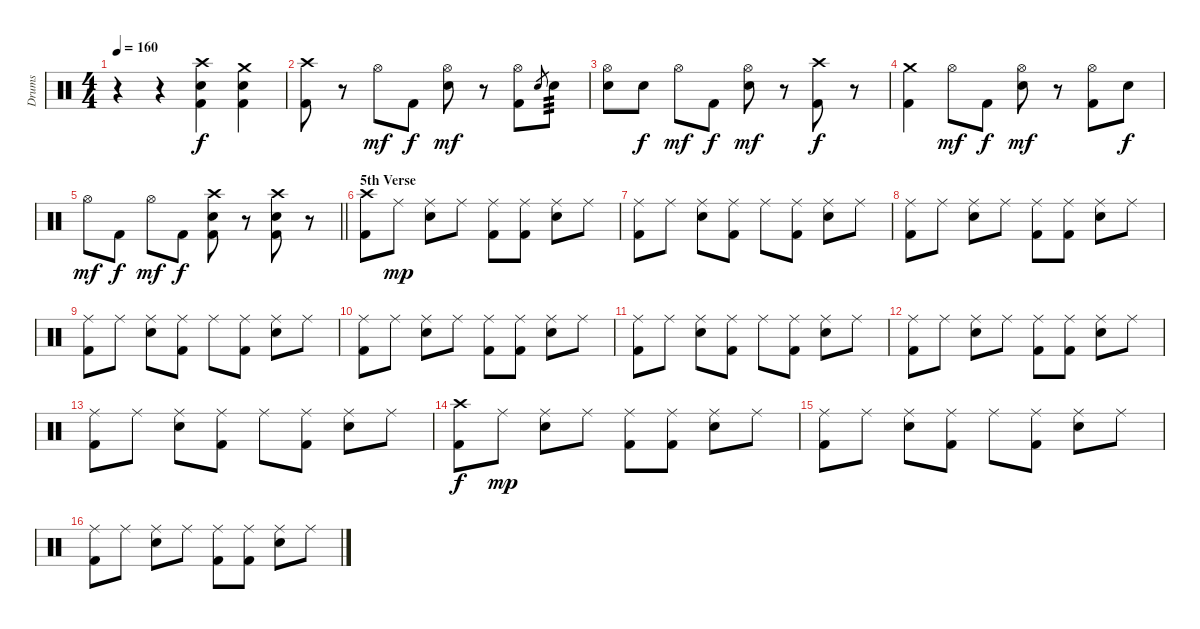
\track ("Drums" "Drums") {instrument percussion}
\staff {score}
\articulation defaults
\ts (4 4)
\tempo 160
\clef neutral
\ks c
r.4{dy mp} r.4 ("Crash high (hit)" "Electric Snare (hit)" "Kick (hit) 2").4{dy f} ("Crash medium (hit)" "Electric Snare (hit)" "Kick (hit) 2").4 |
("Crash high (hit)" "Kick (hit) 2").8 r.8 "Hi-Hat (open)".8{dy mf} "Kick (hit) 2".8{dy f} ("Hi-Hat (open)" "Electric Snare (hit)").8{dy mf} r.8 ("Hi-Hat (open)" "Kick (hit) 2").8 "Electric Snare (hit)".8{gr} "Electric Snare (hit)".8{tp 3} |
("Hi-Hat (open)" "Electric Snare (hit)").8 "Electric Snare (hit)".8{dy f} "Hi-Hat (open)".8{dy mf} "Kick (hit) 2".8{dy f} ("Hi-Hat (open)" "Electric Snare (hit)").8{dy mf} r.8 ("Crash high (hit)" "Kick (hit) 2").8{dy f} r.8 |
("Crash medium (hit)" "Kick (hit) 2").4 "Hi-Hat (open)".8{dy mf} "Kick (hit) 2".8{dy f} ("Hi-Hat (open)" "Electric Snare (hit)").8{dy mf} r.8 ("Hi-Hat (open)" "Kick (hit) 2").8 "Electric Snare (hit)".8{dy f} |
\barLineRight lightlight "Hi-Hat (open)".8{dy mf} "Kick (hit) 2".8{dy f} "Hi-Hat (open)".8{dy mf} "Kick (hit) 2".8{dy f}
("Crash high (hit)" "Electric Snare (hit)" "Kick (hit) 2").8 r.8 ("Crash high (hit)" "Electric Snare (hit)" "Kick (hit) 2").8 r.8 |
\section ("" "5th Verse")
("Crash high (hit)" "Kick (hit) 2").8{volume 14} "Ride (middle)".8{dy mp} ("Ride (middle)" "Electric Snare (hit)").8 "Ride (middle)".8 ("Ride (middle)" "Kick (hit) 2").8 ("Ride (middle)" "Kick (hit) 2").8 ("Ride (middle)" "Electric Snare (hit)").8 "Ride (middle)".8 |
("Ride (middle)" "Kick (hit) 2").8 "Ride (middle)".8 ("Ride (middle)" "Electric Snare (hit)").8 ("Ride (middle)" "Kick (hit) 2").8 "Ride (middle)".8 ("Ride (middle)" "Kick (hit) 2").8 ("Ride (middle)" "Electric Snare (hit)").8 "Ride (middle)".8 |
("Ride (middle)" "Kick (hit) 2").8 "Ride (middle)".8 ("Ride (middle)" "Electric Snare (hit)").8 "Ride (middle)".8 ("Ride (middle)" "Kick (hit) 2").8 ("Ride (middle)" "Kick (hit) 2").8 ("Ride (middle)" "Electric Snare (hit)").8 "Ride (middle)".8 |
("Ride (middle)" "Kick (hit) 2").8 "Ride (middle)".8 ("Ride (middle)" "Electric Snare (hit)").8 ("Ride (middle)" "Kick (hit) 2").8 "Ride (middle)".8 ("Ride (middle)" "Kick (hit) 2").8 ("Ride (middle)" "Electric Snare (hit)").8 "Ride (middle)".8 |
("Ride (middle)" "Kick (hit) 2").8 "Ride (middle)".8 ("Ride (middle)" "Electric Snare (hit)").8 "Ride (middle)".8 ("Ride (middle)" "Kick (hit) 2").8 ("Ride (middle)" "Kick (hit) 2").8 ("Ride (middle)" "Electric Snare (hit)").8 "Ride (middle)".8 |
("Ride (middle)" "Kick (hit) 2").8 "Ride (middle)".8 ("Ride (middle)" "Electric Snare (hit)").8 ("Ride (middle)" "Kick (hit) 2").8 "Ride (middle)".8 ("Ride (middle)" "Kick (hit) 2").8 ("Ride (middle)" "Electric Snare (hit)").8 "Ride (middle)".8 |
("Ride (middle)" "Kick (hit) 2").8 "Ride (middle)".8 ("Ride (middle)" "Electric Snare (hit)").8 "Ride (middle)".8 ("Ride (middle)" "Kick (hit) 2").8 ("Ride (middle)" "Kick (hit) 2").8 ("Ride (middle)" "Electric Snare (hit)").8 "Ride (middle)".8 |
("Ride (middle)" "Kick (hit) 2").8 "Ride (middle)".8 ("Ride (middle)" "Electric Snare (hit)").8 ("Ride (middle)" "Kick (hit) 2").8 "Ride (middle)".8 ("Ride (middle)" "Kick (hit) 2").8 ("Ride (middle)" "Electric Snare (hit)").8 "Ride (middle)".8 |
("Crash high (hit)" "Kick (hit) 2").8{dy f} "Ride (middle)".8{dy mp} ("Ride (middle)" "Electric Snare (hit)").8 "Ride (middle)".8 ("Ride (middle)" "Kick (hit) 2").8 ("Ride (middle)" "Kick (hit) 2").8 ("Ride (middle)" "Electric Snare (hit)").8 "Ride (middle)".8 |
("Ride (middle)" "Kick (hit) 2").8 "Ride (middle)".8 ("Ride (middle)" "Electric Snare (hit)").8 ("Ride (middle)" "Kick (hit) 2").8 "Ride (middle)".8 ("Ride (middle)" "Kick (hit) 2").8 ("Ride (middle)" "Electric Snare (hit)").8 "Ride (middle)".8 |
("Ride (middle)" "Kick (hit) 2").8 "Ride (middle)".8 ("Ride (middle)" "Electric Snare (hit)").8 "Ride (middle)".8 ("Ride (middle)" "Kick (hit) 2").8 ("Ride (middle)" "Kick (hit) 2").8 ("Ride (middle)" "Electric Snare (hit)").8 "Ride (middle)".8
